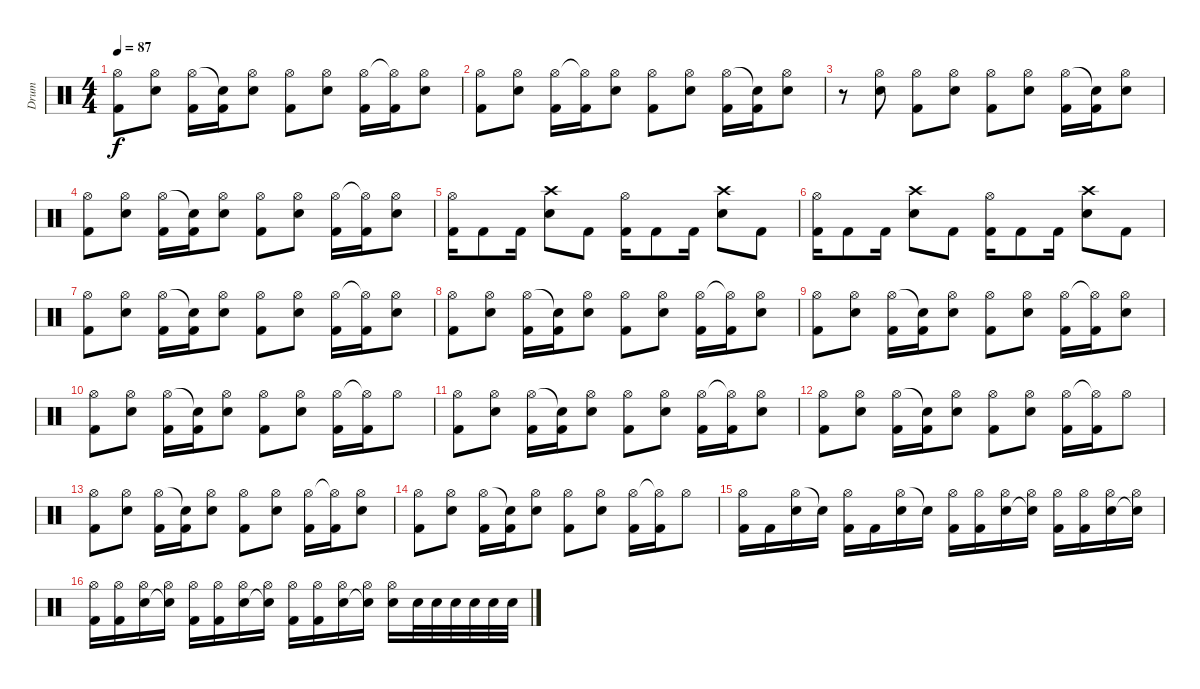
\track ("Drum" "Drum") {instrument percussion}
\staff {score}
\articulation defaults
\ts (4 4)
\tempo 87
\clef neutral
\ks c
("Hi-Hat (open)" "Kick (hit) 2").8{dy f} ("Hi-Hat (open)" "Electric Snare (hit)").8 ("Hi-Hat (open)" "Kick (hit) 2").16 ("Snare (hit)"{t} "Kick (hit) 2").16 ("Hi-Hat (open)" "Electric Snare (hit)").8 ("Hi-Hat (open)" "Kick (hit) 2").8 ("Hi-Hat (open)" "Electric Snare (hit)").8 ("Hi-Hat (open)" "Kick (hit) 2").16 ("Hi-Hat (open)"{t} "Kick (hit) 2").16 ("Hi-Hat (open)" "Electric Snare (hit)").8 |
("Hi-Hat (open)" "Kick (hit) 2").8 ("Hi-Hat (open)" "Electric Snare (hit)").8 ("Hi-Hat (open)" "Kick (hit) 2").16 ("Hi-Hat (open)"{t} "Kick (hit) 2").16 ("Hi-Hat (open)" "Electric Snare (hit)").8 ("Hi-Hat (open)" "Kick (hit) 2").8 ("Hi-Hat (open)" "Electric Snare (hit)").8 ("Hi-Hat (open)" "Kick (hit) 2").16 ("Snare (hit)"{t} "Kick (hit) 2").16 ("Hi-Hat (open)" "Electric Snare (hit)").8 |
r.8 ("Hi-Hat (open)" "Electric Snare (hit)").8 ("Hi-Hat (open)" "Kick (hit) 2").8 ("Hi-Hat (open)" "Electric Snare (hit)").8 ("Hi-Hat (open)" "Kick (hit) 2").8 ("Hi-Hat (open)" "Electric Snare (hit)").8 ("Hi-Hat (open)" "Kick (hit) 2").16 ("Snare (hit)"{t} "Kick (hit) 2").16 ("Hi-Hat (open)" "Electric Snare (hit)").8 |
("Hi-Hat (open)" "Kick (hit) 2").8 ("Hi-Hat (open)" "Electric Snare (hit)").8 ("Hi-Hat (open)" "Kick (hit) 2").16 ("Snare (hit)"{t} "Kick (hit) 2").16 ("Hi-Hat (open)" "Electric Snare (hit)").8 ("Hi-Hat (open)" "Kick (hit) 2").8 ("Hi-Hat (open)" "Electric Snare (hit)").8 ("Hi-Hat (open)" "Kick (hit) 2").16 ("Hi-Hat (open)"{t} "Kick (hit) 2").16 ("Hi-Hat (open)" "Electric Snare (hit)").8 |
("Hi-Hat (open)" "Kick (hit) 2").16 "Kick (hit) 2".8 "Kick (hit) 2".16 ("Crash high (hit)" "Electric Snare (hit)").8 "Kick (hit) 2".8 ("Hi-Hat (open)" "Kick (hit) 2").16 "Kick (hit) 2".8 "Kick (hit) 2".16 ("Crash high (hit)" "Electric Snare (hit)").8 "Kick (hit) 2".8 |
("Hi-Hat (open)" "Kick (hit) 2").16 "Kick (hit) 2".8 "Kick (hit) 2".16 ("Crash high (hit)" "Electric Snare (hit)").8 "Kick (hit) 2".8 ("Hi-Hat (open)" "Kick (hit) 2").16 "Kick (hit) 2".8 "Kick (hit) 2".16 ("Crash high (hit)" "Electric Snare (hit)").8 "Kick (hit) 2".8 |
("Hi-Hat (open)" "Kick (hit) 2").8 ("Hi-Hat (open)" "Electric Snare (hit)").8 ("Hi-Hat (open)" "Kick (hit) 2").16 ("Snare (hit)"{t} "Kick (hit) 2").16 ("Hi-Hat (open)" "Electric Snare (hit)").8 ("Hi-Hat (open)" "Kick (hit) 2").8 ("Hi-Hat (open)" "Electric Snare (hit)").8 ("Hi-Hat (open)" "Kick (hit) 2").16 ("Hi-Hat (open)"{t} "Kick (hit) 2").16 ("Hi-Hat (open)" "Electric Snare (hit)").8 |
("Hi-Hat (open)" "Kick (hit) 2").8 ("Hi-Hat (open)" "Electric Snare (hit)").8 ("Hi-Hat (open)" "Kick (hit) 2").16 ("Snare (hit)"{t} "Kick (hit) 2").16 ("Hi-Hat (open)" "Electric Snare (hit)").8 ("Hi-Hat (open)" "Kick (hit) 2").8 ("Hi-Hat (open)" "Electric Snare (hit)").8 ("Hi-Hat (open)" "Kick (hit) 2").16 ("Hi-Hat (open)"{t} "Kick (hit) 2").16 ("Hi-Hat (open)" "Electric Snare (hit)").8 |
("Hi-Hat (open)" "Kick (hit) 2").8 ("Hi-Hat (open)" "Electric Snare (hit)").8 ("Hi-Hat (open)" "Kick (hit) 2").16 ("Snare (hit)"{t} "Kick (hit) 2").16 ("Hi-Hat (open)" "Electric Snare (hit)").8 ("Hi-Hat (open)" "Kick (hit) 2").8 ("Hi-Hat (open)" "Electric Snare (hit)").8 ("Hi-Hat (open)" "Kick (hit) 2").16 ("Hi-Hat (open)"{t} "Kick (hit) 2").16 ("Hi-Hat (open)" "Electric Snare (hit)").8 |
("Hi-Hat (open)" "Kick (hit) 2").8 ("Hi-Hat (open)" "Electric Snare (hit)").8 ("Hi-Hat (open)" "Kick (hit) 2").16 ("Snare (hit)"{t} "Kick (hit) 2").16 ("Hi-Hat (open)" "Electric Snare (hit)").8 ("Hi-Hat (open)" "Kick (hit) 2").8 ("Hi-Hat (open)" "Electric Snare (hit)").8 ("Hi-Hat (open)" "Kick (hit) 2").16 ("Hi-Hat (open)"{t} "Kick (hit) 2").16 "Hi-Hat (open)".8 |
("Hi-Hat (open)" "Kick (hit) 2").8 ("Hi-Hat (open)" "Electric Snare (hit)").8 ("Hi-Hat (open)" "Kick (hit) 2").16 ("Snare (hit)"{t} "Kick (hit) 2").16 ("Hi-Hat (open)" "Electric Snare (hit)").8 ("Hi-Hat (open)" "Kick (hit) 2").8 ("Hi-Hat (open)" "Electric Snare (hit)").8 ("Hi-Hat (open)" "Kick (hit) 2").16 ("Hi-Hat (open)"{t} "Kick (hit) 2").16 ("Hi-Hat (open)" "Electric Snare (hit)").8 |
("Hi-Hat (open)" "Kick (hit) 2").8 ("Hi-Hat (open)" "Electric Snare (hit)").8 ("Hi-Hat (open)" "Kick (hit) 2").16 ("Snare (hit)"{t} "Kick (hit) 2").16 ("Hi-Hat (open)" "Electric Snare (hit)").8 ("Hi-Hat (open)" "Kick (hit) 2").8 ("Hi-Hat (open)" "Electric Snare (hit)").8 ("Hi-Hat (open)" "Kick (hit) 2").16 ("Hi-Hat (open)"{t} "Kick (hit) 2").16 "Hi-Hat (open)".8 |
("Hi-Hat (open)" "Kick (hit) 2").8 ("Hi-Hat (open)" "Electric Snare (hit)").8 ("Hi-Hat (open)" "Kick (hit) 2").16 ("Snare (hit)"{t} "Kick (hit) 2").16 ("Hi-Hat (open)" "Electric Snare (hit)").8 ("Hi-Hat (open)" "Kick (hit) 2").8 ("Hi-Hat (open)" "Electric Snare (hit)").8 ("Hi-Hat (open)" "Kick (hit) 2").16 ("Hi-Hat (open)"{t} "Kick (hit) 2").16 ("Hi-Hat (open)" "Electric Snare (hit)").8 |
("Hi-Hat (open)" "Kick (hit) 2").8 ("Hi-Hat (open)" "Electric Snare (hit)").8 ("Hi-Hat (open)" "Kick (hit) 2").16 ("Snare (hit)"{t} "Kick (hit) 2").16 ("Hi-Hat (open)" "Electric Snare (hit)").8 ("Hi-Hat (open)" "Kick (hit) 2").8 ("Hi-Hat (open)" "Electric Snare (hit)").8 ("Hi-Hat (open)" "Kick (hit) 2").16 ("Hi-Hat (open)"{t} "Kick (hit) 2").16 "Hi-Hat (open)".8 |
("Hi-Hat (open)" "Kick (hit) 2").16 "Kick (hit) 2".16 ("Hi-Hat (open)" "Electric Snare (hit)").16 "Snare (hit)"{t}.16 ("Hi-Hat (open)" "Kick (hit) 2").16 "Kick (hit) 2".16 ("Hi-Hat (open)" "Electric Snare (hit)").16 "Snare (hit)"{t}.16 ("Hi-Hat (open)" "Kick (hit) 2").16 ("Hi-Hat (open)" "Kick (hit) 2").16 ("Hi-Hat (open)" "Electric Snare (hit)").16 ("Hi-Hat (open)" "Snare (hit)"{t}).16 ("Hi-Hat (open)" "Kick (hit) 2").16 ("Hi-Hat (open)" "Kick (hit) 2").16 ("Hi-Hat (open)" "Electric Snare (hit)").16 ("Hi-Hat (open)" "Snare (hit)"{t}).16 |
("Hi-Hat (open)" "Kick (hit) 2").16 ("Hi-Hat (open)" "Kick (hit) 2").16 ("Hi-Hat (open)" "Electric Snare (hit)").16 ("Hi-Hat (open)" "Snare (hit)"{t}).16 ("Hi-Hat (open)" "Kick (hit) 2").16 ("Hi-Hat (open)" "Kick (hit) 2").16 ("Hi-Hat (open)" "Electric Snare (hit)").16 ("Hi-Hat (open)" "Snare (hit)"{t}).16 ("Hi-Hat (open)" "Kick (hit) 2").16 ("Hi-Hat (open)" "Kick (hit) 2").16 ("Hi-Hat (open)" "Electric Snare (hit)").16 ("Hi-Hat (open)" "Snare (hit)"{t}).16 ("Hi-Hat (open)" "Electric Snare (hit)").16 "Electric Snare (hit)".32 "Electric Snare (hit)".32 "Electric Snare (hit)".32 "Electric Snare (hit)".32 "Electric Snare (hit)".32 "Electric Snare (hit)".32
